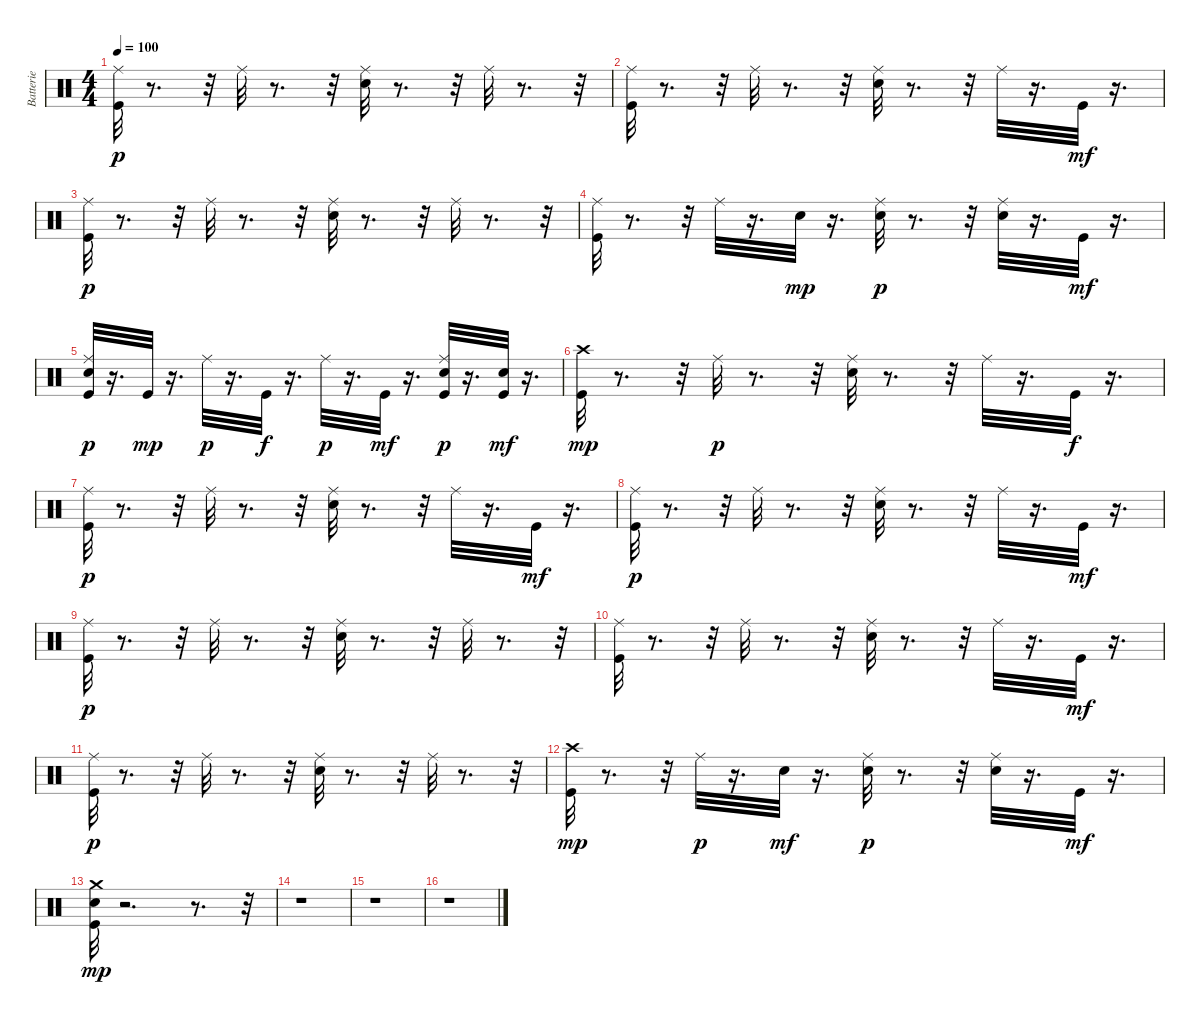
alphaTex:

\track ("Batterie" "Batterie") {instrument percussion}
\staff {score}
\articulation defaults
\ts (4 4)
\tempo 100
\clef neutral
\ks c
("Kick (hit)" "Ride (middle)").32{dy p} r.8{d} r.32 "Ride (middle)".32 r.8{d} r.32 ("Snare (hit) 2" "Ride (middle)").32 r.8{d} r.32 "Ride (middle)".32 r.8{d} r.32 |
("Kick (hit)" "Ride (middle)").32 r.8{d} r.32 "Ride (middle)".32 r.8{d} r.32 ("Snare (hit) 2" "Ride (middle)").32 r.8{d} r.32 "Ride (middle)".32 r.16{d} "Kick (hit)".32{dy mf} r.16{d} |
("Kick (hit)" "Ride (middle)").32{dy p} r.8{d} r.32 "Ride (middle)".32 r.8{d} r.32 ("Snare (hit) 2" "Ride (middle)").32 r.8{d} r.32 "Ride (middle)".32 r.8{d} r.32 |
("Kick (hit)" "Ride (middle)").32 r.8{d} r.32 "Ride (middle)".32 r.16{d} "Snare (hit) 2".32{dy mp} r.16{d} ("Snare (hit) 2" "Ride (middle)").32{dy p} r.8{d} r.32 ("Snare (hit) 2" "Ride (middle)").32 r.16{d} "Kick (hit)".32{dy mf} r.16{d} |
("Kick (hit)" "Snare (hit) 2" "Ride (middle)").32{dy p} r.16{d} "Kick (hit)".32{dy mp} r.16{d} "Ride (middle)".32{dy p} r.16{d} "Kick (hit)".32{dy f} r.16{d} "Ride (middle)".32{dy p} r.16{d} "Kick (hit)".32{dy mf} r.16{d} ("Kick (hit)" "Snare (hit) 2" "Ride (middle)").32{dy p} r.16{d} ("Kick (hit)" "Snare (hit) 2").32{dy mf} r.16{d} |
("Kick (hit)" "Crash high (hit)").32{dy mp} r.8{d} r.32 "Ride (middle)".32{dy p} r.8{d} r.32 ("Snare (hit) 2" "Ride (middle)").32 r.8{d} r.32 "Ride (middle)".32 r.16{d} "Kick (hit)".32{dy f} r.16{d} |
("Kick (hit)" "Ride (middle)").32{dy p} r.8{d} r.32 "Ride (middle)".32 r.8{d} r.32 ("Snare (hit) 2" "Ride (middle)").32 r.8{d} r.32 "Ride (middle)".32 r.16{d} "Kick (hit)".32{dy mf} r.16{d} |
("Kick (hit)" "Ride (middle)").32{dy p} r.8{d} r.32 "Ride (middle)".32 r.8{d} r.32 ("Snare (hit) 2" "Ride (middle)").32 r.8{d} r.32 "Ride (middle)".32 r.16{d} "Kick (hit)".32{dy mf} r.16{d} |
("Kick (hit)" "Ride (middle)").32{dy p} r.8{d} r.32 "Ride (middle)".32 r.8{d} r.32 ("Snare (hit) 2" "Ride (middle)").32 r.8{d} r.32 "Ride (middle)".32 r.8{d} r.32 |
("Kick (hit)" "Ride (middle)").32 r.8{d} r.32 "Ride (middle)".32 r.8{d} r.32 ("Snare (hit) 2" "Ride (middle)").32 r.8{d} r.32 "Ride (middle)".32 r.16{d} "Kick (hit)".32{dy mf} r.16{d} |
("Kick (hit)" "Ride (middle)").32{dy p} r.8{d} r.32 "Ride (middle)".32 r.8{d} r.32 ("Snare (hit) 2" "Ride (middle)").32 r.8{d} r.32 "Ride (middle)".32 r.8{d} r.32 |
("Kick (hit)" "Crash high (hit)").32{dy mp} r.8{d} r.32 "Ride (middle)".32{dy p} r.16{d} "Snare (hit) 2".32{dy mf} r.16{d} ("Snare (hit) 2" "Ride (middle)").32{dy p} r.8{d} r.32 ("Snare (hit) 2" "Ride (middle)").32 r.16{d} "Kick (hit)".32{dy mf} r.16{d} |
("Kick (hit)" "Snare (hit) 2" "Crash medium (hit)").32{dy mp} r.2{d} r.8{d} r.32 |
r.1 |
r.1 |
r.1
